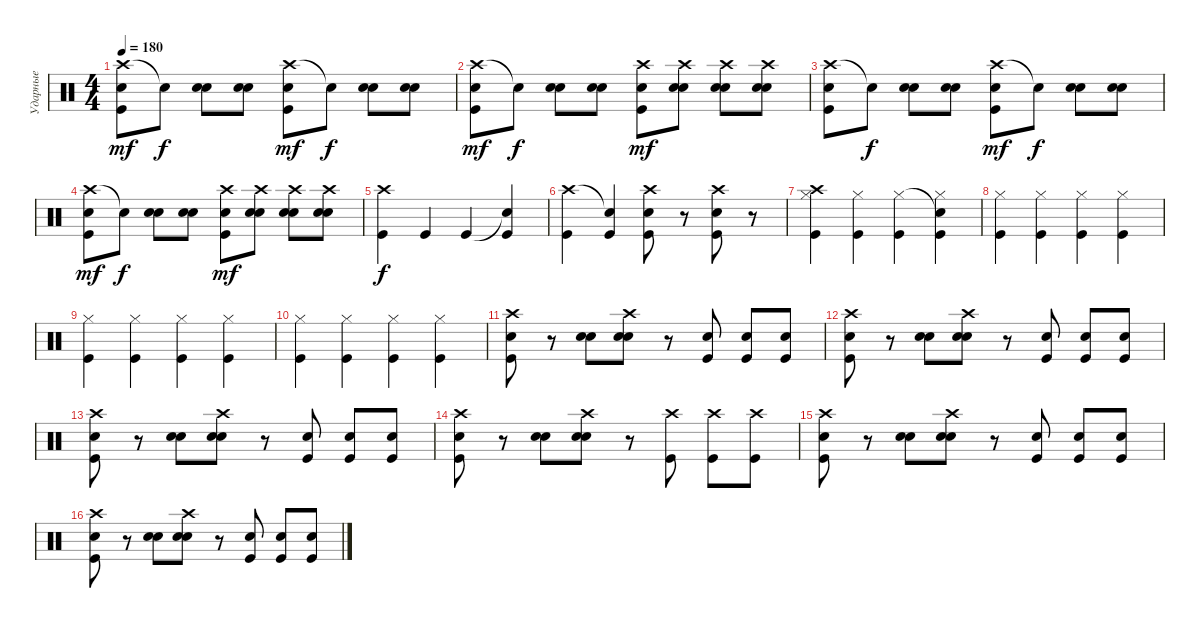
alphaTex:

\track ("Ударные" "Ударные") {instrument percussion}
\staff {score}
\articulation defaults
\ts (4 4)
\tempo 180
\clef neutral
\ks c
("Crash high (hit)" "Kick (hit)" "Electric Snare (hit)").8{dy mf} "Snare (hit)"{t}.8{dy f} ("Electric Snare (hit)" "Electric Snare (hit)").8 ("Electric Snare (hit)" "Electric Snare (hit)").8 ("Crash high (hit)" "Kick (hit)" "Electric Snare (hit)").8{dy mf} "Snare (hit)"{t}.8{dy f} ("Electric Snare (hit)" "Electric Snare (hit)").8 ("Electric Snare (hit)" "Electric Snare (hit)").8 |
("Crash high (hit)" "Kick (hit)" "Electric Snare (hit)").8{dy mf} "Snare (hit)"{t}.8{dy f} ("Electric Snare (hit)" "Electric Snare (hit)").8 ("Electric Snare (hit)" "Electric Snare (hit)").8 ("Crash high (hit)" "Kick (hit)" "Electric Snare (hit)").8{dy mf} ("Crash high (hit)" "Electric Snare (hit)" "Electric Snare (hit)").8 ("Crash high (hit)" "Electric Snare (hit)" "Electric Snare (hit)").8 ("Crash high (hit)" "Electric Snare (hit)" "Electric Snare (hit)").8 |
("Crash high (hit)" "Kick (hit)" "Electric Snare (hit)").8 "Snare (hit)"{t}.8{dy f} ("Electric Snare (hit)" "Electric Snare (hit)").8 ("Electric Snare (hit)" "Electric Snare (hit)").8 ("Crash high (hit)" "Kick (hit)" "Electric Snare (hit)").8{dy mf} "Snare (hit)"{t}.8{dy f} ("Electric Snare (hit)" "Electric Snare (hit)").8 ("Electric Snare (hit)" "Electric Snare (hit)").8 |
("Crash high (hit)" "Kick (hit)" "Electric Snare (hit)").8{dy mf} "Snare (hit)"{t}.8{dy f} ("Electric Snare (hit)" "Electric Snare (hit)").8 ("Electric Snare (hit)" "Electric Snare (hit)").8 ("Crash high (hit)" "Kick (hit)" "Electric Snare (hit)").8{dy mf} ("Crash high (hit)" "Electric Snare (hit)" "Electric Snare (hit)").8 ("Crash high (hit)" "Electric Snare (hit)" "Electric Snare (hit)").8 ("Crash high (hit)" "Electric Snare (hit)" "Electric Snare (hit)").8 |
("Crash high (hit)" "Kick (hit)").4{dy f} "Kick (hit)".4 "Kick (hit)".4 ("Snare (hit)"{t} "Kick (hit)").4 |
("Crash high (hit)" "Kick (hit)").4 ("Snare (hit)"{t} "Kick (hit)").4 ("Crash high (hit)" "Electric Snare (hit)" "Kick (hit)").8 r.8 ("Crash high (hit)" "Electric Snare (hit)" "Kick (hit)").8 r.8 |
("Crash high (hit)" "Hi-Hat (closed)" "Kick (hit)").4 ("Hi-Hat (closed)" "Kick (hit)").4 ("Hi-Hat (closed)" "Kick (hit)").4 ("Snare (hit)"{t} "Hi-Hat (closed)" "Kick (hit)").4 |
("Hi-Hat (closed)" "Kick (hit)").4 ("Hi-Hat (closed)" "Kick (hit)").4 ("Hi-Hat (closed)" "Kick (hit)").4 ("Hi-Hat (closed)" "Kick (hit)").4 |
("Hi-Hat (closed)" "Kick (hit)").4 ("Hi-Hat (closed)" "Kick (hit)").4 ("Hi-Hat (closed)" "Kick (hit)").4 ("Hi-Hat (closed)" "Kick (hit)").4 |
("Hi-Hat (closed)" "Kick (hit)").4 ("Hi-Hat (closed)" "Kick (hit)").4 ("Hi-Hat (closed)" "Kick (hit)").4 ("Hi-Hat (closed)" "Kick (hit)").4 |
("Crash high (hit)" "Kick (hit)" "Electric Snare (hit)").8 r.8 ("Electric Snare (hit)" "Electric Snare (hit)").8 ("Crash high (hit)" "Electric Snare (hit)" "Electric Snare (hit)").8 r.8 ("Electric Snare (hit)" "Kick (hit)").8 ("Electric Snare (hit)" "Kick (hit)").8 ("Electric Snare (hit)" "Kick (hit)").8 |
("Crash high (hit)" "Kick (hit)" "Electric Snare (hit)").8 r.8 ("Electric Snare (hit)" "Electric Snare (hit)").8 ("Crash high (hit)" "Electric Snare (hit)" "Electric Snare (hit)").8 r.8 ("Electric Snare (hit)" "Kick (hit)").8 ("Electric Snare (hit)" "Kick (hit)").8 ("Electric Snare (hit)" "Kick (hit)").8 |
("Crash high (hit)" "Kick (hit)" "Electric Snare (hit)").8 r.8 ("Electric Snare (hit)" "Electric Snare (hit)").8 ("Crash high (hit)" "Electric Snare (hit)" "Electric Snare (hit)").8 r.8 ("Electric Snare (hit)" "Kick (hit)").8 ("Electric Snare (hit)" "Kick (hit)").8 ("Electric Snare (hit)" "Kick (hit)").8 |
("Crash high (hit)" "Kick (hit)" "Electric Snare (hit)").8 r.8 ("Electric Snare (hit)" "Electric Snare (hit)").8 ("Crash high (hit)" "Electric Snare (hit)" "Electric Snare (hit)").8 r.8 ("Crash high (hit)" "Kick (hit)").8 ("Crash high (hit)" "Kick (hit)").8 ("Crash high (hit)" "Kick (hit)").8 |
("Crash high (hit)" "Kick (hit)" "Electric Snare (hit)").8 r.8 ("Electric Snare (hit)" "Electric Snare (hit)").8 ("Crash high (hit)" "Electric Snare (hit)" "Electric Snare (hit)").8 r.8 ("Electric Snare (hit)" "Kick (hit)").8 ("Electric Snare (hit)" "Kick (hit)").8 ("Electric Snare (hit)" "Kick (hit)").8 |
("Crash high (hit)" "Kick (hit)" "Electric Snare (hit)").8 r.8 ("Electric Snare (hit)" "Electric Snare (hit)").8 ("Crash high (hit)" "Electric Snare (hit)" "Electric Snare (hit)").8 r.8 ("Electric Snare (hit)" "Kick (hit)").8 ("Electric Snare (hit)" "Kick (hit)").8 ("Electric Snare (hit)" "Kick (hit)").8
